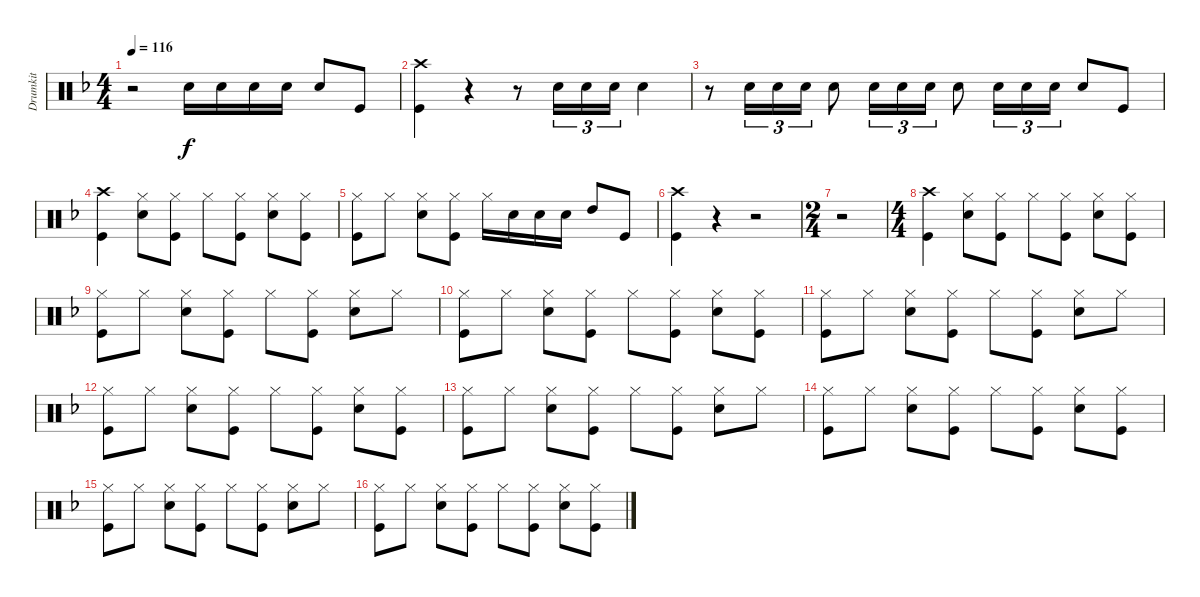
\track ("Drumkit" "Drumkit") {instrument percussion}
\staff {score}
\articulation defaults
\ts (4 4)
\tempo 116
\clef neutral
\ks dminor
r.2{dy f} "Snare (hit) 2".16 "Snare (hit) 2".16 "Snare (hit) 2".16 "Snare (hit) 2".16 "Snare (hit) 2".8 "Kick (hit)".8 |
("Crash high (hit)" "Kick (hit)").4 r.4 r.8 "Snare (hit) 2".16{tu (3 2)} "Snare (hit) 2".16{tu (3 2)} "Snare (hit) 2".16{tu (3 2)} "Snare (hit) 2".4 |
r.8 "Snare (hit) 2".16{tu (3 2)} "Snare (hit) 2".16{tu (3 2)} "Snare (hit) 2".16{tu (3 2)} "Snare (hit) 2".8 "Snare (hit) 2".16{tu (3 2)} "Snare (hit) 2".16{tu (3 2)} "Snare (hit) 2".16{tu (3 2)} "Snare (hit) 2".8 "Snare (hit) 2".16{tu (3 2)} "Snare (hit) 2".16{tu (3 2)} "Snare (hit) 2".16{tu (3 2)} "Snare (hit) 2".8 "Kick (hit)".8 |
("Crash high (hit)" "Kick (hit)").4 ("Hi-Hat (closed)" "Snare (hit) 2").8 ("Hi-Hat (closed)" "Kick (hit)").8 "Hi-Hat (closed)".8 ("Hi-Hat (closed)" "Kick (hit)").8 ("Hi-Hat (closed)" "Snare (hit) 2").8 ("Hi-Hat (closed)" "Kick (hit)").8 |
("Hi-Hat (closed)" "Kick (hit)").8 "Hi-Hat (closed)".8 ("Hi-Hat (closed)" "Snare (hit) 2").8 ("Hi-Hat (closed)" "Kick (hit)").8 "Hi-Hat (closed)".16 "Snare (hit) 2".16 "Snare (hit) 2".16 "Snare (hit) 2".16 "High Tom (hit)".8 "Kick (hit)".8 |
("Crash high (hit)" "Kick (hit)").4 r.4 r.2 |
\ts (2 4)
r.2 |
\ts (4 4)
("Crash high (hit)" "Kick (hit)").4 ("Hi-Hat (closed)" "Snare (hit) 2").8 ("Hi-Hat (closed)" "Kick (hit)").8 "Hi-Hat (closed)".8 ("Hi-Hat (closed)" "Kick (hit)").8 ("Hi-Hat (closed)" "Snare (hit) 2").8 ("Hi-Hat (closed)" "Kick (hit)").8 |
("Hi-Hat (closed)" "Kick (hit)").8 "Hi-Hat (closed)".8 ("Hi-Hat (closed)" "Snare (hit) 2").8 ("Hi-Hat (closed)" "Kick (hit)").8 "Hi-Hat (closed)".8 ("Hi-Hat (closed)" "Kick (hit)").8 ("Hi-Hat (closed)" "Snare (hit) 2").8 "Hi-Hat (closed)".8 |
("Hi-Hat (closed)" "Kick (hit)").8 "Hi-Hat (closed)".8 ("Hi-Hat (closed)" "Snare (hit) 2").8 ("Hi-Hat (closed)" "Kick (hit)").8 "Hi-Hat (closed)".8 ("Hi-Hat (closed)" "Kick (hit)").8 ("Hi-Hat (closed)" "Snare (hit) 2").8 ("Hi-Hat (closed)" "Kick (hit)").8 |
("Hi-Hat (closed)" "Kick (hit)").8 "Hi-Hat (closed)".8 ("Hi-Hat (closed)" "Snare (hit) 2").8 ("Hi-Hat (closed)" "Kick (hit)").8 "Hi-Hat (closed)".8 ("Hi-Hat (closed)" "Kick (hit)").8 ("Hi-Hat (closed)" "Snare (hit) 2").8 "Hi-Hat (closed)".8 |
("Hi-Hat (closed)" "Kick (hit)").8 "Hi-Hat (closed)".8 ("Hi-Hat (closed)" "Snare (hit) 2").8 ("Hi-Hat (closed)" "Kick (hit)").8 "Hi-Hat (closed)".8 ("Hi-Hat (closed)" "Kick (hit)").8 ("Hi-Hat (closed)" "Snare (hit) 2").8 ("Hi-Hat (closed)" "Kick (hit)").8 |
("Hi-Hat (closed)" "Kick (hit)").8 "Hi-Hat (closed)".8 ("Hi-Hat (closed)" "Snare (hit) 2").8 ("Hi-Hat (closed)" "Kick (hit)").8 "Hi-Hat (closed)".8 ("Hi-Hat (closed)" "Kick (hit)").8 ("Hi-Hat (closed)" "Snare (hit) 2").8 "Hi-Hat (closed)".8 |
("Hi-Hat (closed)" "Kick (hit)").8 "Hi-Hat (closed)".8 ("Hi-Hat (closed)" "Snare (hit) 2").8 ("Hi-Hat (closed)" "Kick (hit)").8 "Hi-Hat (closed)".8 ("Hi-Hat (closed)" "Kick (hit)").8 ("Hi-Hat (closed)" "Snare (hit) 2").8 ("Hi-Hat (closed)" "Kick (hit)").8 |
("Hi-Hat (closed)" "Kick (hit)").8 "Hi-Hat (closed)".8 ("Hi-Hat (closed)" "Snare (hit) 2").8 ("Hi-Hat (closed)" "Kick (hit)").8 "Hi-Hat (closed)".8 ("Hi-Hat (closed)" "Kick (hit)").8 ("Hi-Hat (closed)" "Snare (hit) 2").8 "Hi-Hat (closed)".8 |
("Hi-Hat (closed)" "Kick (hit)").8 "Hi-Hat (closed)".8 ("Hi-Hat (closed)" "Snare (hit) 2").8 ("Hi-Hat (closed)" "Kick (hit)").8 "Hi-Hat (closed)".8 ("Hi-Hat (closed)" "Kick (hit)").8 ("Hi-Hat (closed)" "Snare (hit) 2").8 ("Hi-Hat (closed)" "Kick (hit)").8
